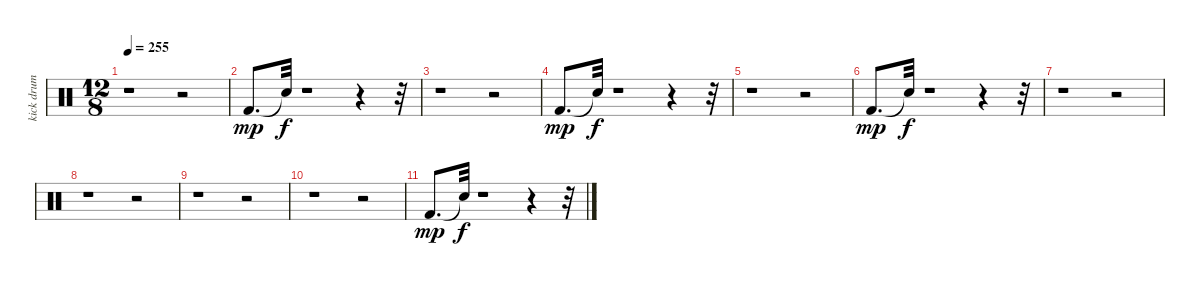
\track ("kick drum           " "kick drum ") {instrument percussion}
\staff {score}
\articulation defaults
\ts (12 8)
\tempo 255
\clef neutral
\ks c
r.1{dy f} r.2 |
"Kick (hit) 2".8{d dy mp} "Snare (hit)"{t}.32{dy f} r.1 r.4 r.32 |
r.1 r.2 |
"Kick (hit) 2".8{d dy mp} "Snare (hit)"{t}.32{dy f} r.1 r.4 r.32 |
r.1 r.2 |
"Kick (hit) 2".8{d dy mp} "Snare (hit)"{t}.32{dy f} r.1 r.4 r.32 |
r.1 r.2 |
r.1 r.2 |
r.1 r.2 |
r.1 r.2 |
"Kick (hit) 2".8{d dy mp} "Snare (hit)"{t}.32{dy f} r.1 r.4 r.32
